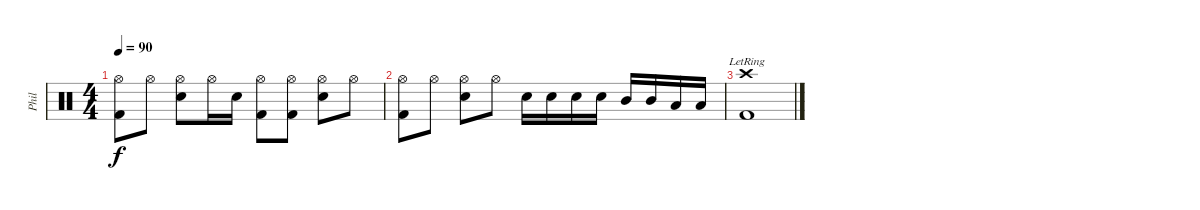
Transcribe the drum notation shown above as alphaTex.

\track ("Phil" "Phil") {instrument percussion}
\staff {score}
\articulation defaults
\ts (4 4)
\tempo 90
\clef neutral
\ks c
("Kick (hit) 2" "Hi-Hat (open)").8{dy f} "Hi-Hat (open)".8 ("Snare (hit) 2" "Hi-Hat (open)").8 "Hi-Hat (open)".16 "Snare (hit) 2".16 ("Kick (hit) 2" "Hi-Hat (open)").8 ("Kick (hit) 2" "Hi-Hat (open)").8 ("Snare (hit) 2" "Hi-Hat (open)").8 "Hi-Hat (open)".8 |
("Kick (hit) 2" "Hi-Hat (open)").8 "Hi-Hat (open)".8 ("Snare (hit) 2" "Hi-Hat (open)").8 "Hi-Hat (open)".8 "Snare (hit) 2".16 "Snare (hit) 2".16 "Snare (hit) 2".16 "Snare (hit) 2".16 "Mid Tom (hit)".16 "Mid Tom (hit)".16 "Low Floor Tom (hit)".16 "Low Floor Tom (hit)".16 |
("Kick (hit) 2" "Crash high (hit)"{lr}).1
